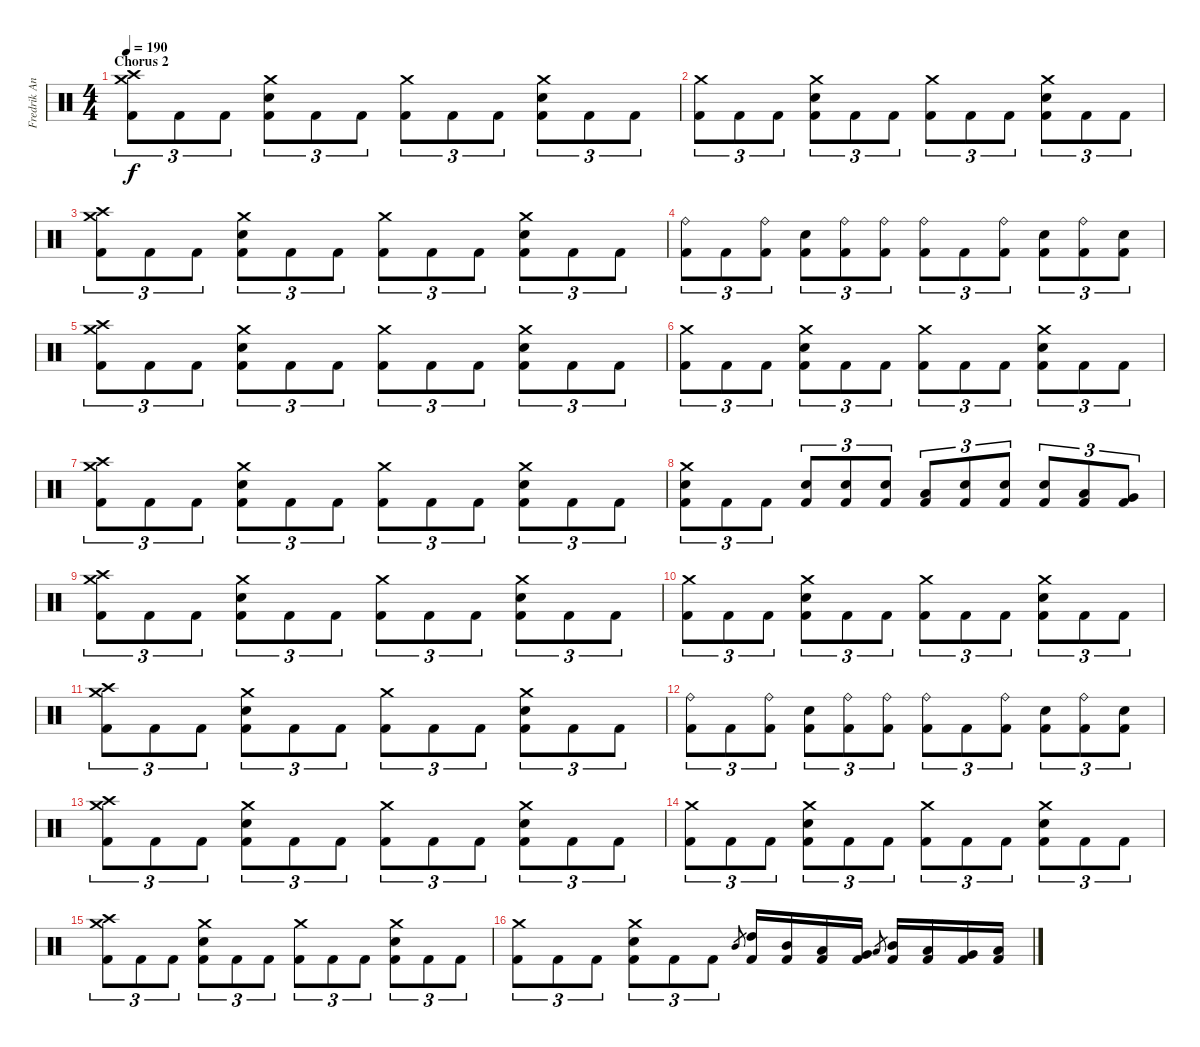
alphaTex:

\track ("Fredrik Andersson" "Fredrik An") {instrument percussion}
\staff {score}
\articulation defaults
\ts (4 4)
\section ("" "Chorus 2")
\tempo 190
\clef neutral
\ks c
("Crash medium (hit)" "Crash high (hit)" "Kick (hit) 2").8{tu (3 2) dy f} "Kick (hit) 2".8{tu (3 2)} "Kick (hit) 2".8{tu (3 2)} ("Crash medium (hit)" "Electric Snare (hit)" "Kick (hit) 2").8{tu (3 2)} "Kick (hit) 2".8{tu (3 2)} "Kick (hit) 2".8{tu (3 2)} ("Crash medium (hit)" "Kick (hit) 2").8{tu (3 2)} "Kick (hit) 2".8{tu (3 2)} "Kick (hit) 2".8{tu (3 2)} ("Crash medium (hit)" "Electric Snare (hit)" "Kick (hit) 2").8{tu (3 2)} "Kick (hit) 2".8{tu (3 2)} "Kick (hit) 2".8{tu (3 2)} |
("Crash medium (hit)" "Kick (hit) 2").8{tu (3 2)} "Kick (hit) 2".8{tu (3 2)} "Kick (hit) 2".8{tu (3 2)} ("Crash medium (hit)" "Electric Snare (hit)" "Kick (hit) 2").8{tu (3 2)} "Kick (hit) 2".8{tu (3 2)} "Kick (hit) 2".8{tu (3 2)} ("Crash medium (hit)" "Kick (hit) 2").8{tu (3 2)} "Kick (hit) 2".8{tu (3 2)} "Kick (hit) 2".8{tu (3 2)} ("Crash medium (hit)" "Electric Snare (hit)" "Kick (hit) 2").8{tu (3 2)} "Kick (hit) 2".8{tu (3 2)} "Kick (hit) 2".8{tu (3 2)} |
("Crash medium (hit)" "Crash high (hit)" "Kick (hit) 2").8{tu (3 2)} "Kick (hit) 2".8{tu (3 2)} "Kick (hit) 2".8{tu (3 2)} ("Crash medium (hit)" "Electric Snare (hit)" "Kick (hit) 2").8{tu (3 2)} "Kick (hit) 2".8{tu (3 2)} "Kick (hit) 2".8{tu (3 2)} ("Crash medium (hit)" "Kick (hit) 2").8{tu (3 2)} "Kick (hit) 2".8{tu (3 2)} "Kick (hit) 2".8{tu (3 2)} ("Crash medium (hit)" "Electric Snare (hit)" "Kick (hit) 2").8{tu (3 2)} "Kick (hit) 2".8{tu (3 2)} "Kick (hit) 2".8{tu (3 2)} |
("Ride (bell)" "Kick (hit) 2").8{tu (3 2)} "Kick (hit) 2".8{tu (3 2)} ("Ride (bell)" "Kick (hit) 2").8{tu (3 2)} ("Electric Snare (hit)" "Kick (hit) 2").8{tu (3 2)} ("Ride (bell)" "Kick (hit) 2").8{tu (3 2)} ("Ride (bell)" "Kick (hit) 2").8{tu (3 2)} ("Ride (bell)" "Kick (hit) 2").8{tu (3 2)} "Kick (hit) 2".8{tu (3 2)} ("Ride (bell)" "Kick (hit) 2").8{tu (3 2)} ("Electric Snare (hit)" "Kick (hit) 2").8{tu (3 2)} ("Ride (bell)" "Kick (hit) 2").8{tu (3 2)} ("Electric Snare (hit)" "Kick (hit) 2").8{tu (3 2)} |
("Crash medium (hit)" "Crash high (hit)" "Kick (hit) 2").8{tu (3 2)} "Kick (hit) 2".8{tu (3 2)} "Kick (hit) 2".8{tu (3 2)} ("Crash medium (hit)" "Electric Snare (hit)" "Kick (hit) 2").8{tu (3 2)} "Kick (hit) 2".8{tu (3 2)} "Kick (hit) 2".8{tu (3 2)} ("Crash medium (hit)" "Kick (hit) 2").8{tu (3 2)} "Kick (hit) 2".8{tu (3 2)} "Kick (hit) 2".8{tu (3 2)} ("Crash medium (hit)" "Electric Snare (hit)" "Kick (hit) 2").8{tu (3 2)} "Kick (hit) 2".8{tu (3 2)} "Kick (hit) 2".8{tu (3 2)} |
("Crash medium (hit)" "Kick (hit) 2").8{tu (3 2)} "Kick (hit) 2".8{tu (3 2)} "Kick (hit) 2".8{tu (3 2)} ("Crash medium (hit)" "Electric Snare (hit)" "Kick (hit) 2").8{tu (3 2)} "Kick (hit) 2".8{tu (3 2)} "Kick (hit) 2".8{tu (3 2)} ("Crash medium (hit)" "Kick (hit) 2").8{tu (3 2)} "Kick (hit) 2".8{tu (3 2)} "Kick (hit) 2".8{tu (3 2)} ("Crash medium (hit)" "Electric Snare (hit)" "Kick (hit) 2").8{tu (3 2)} "Kick (hit) 2".8{tu (3 2)} "Kick (hit) 2".8{tu (3 2)} |
("Crash medium (hit)" "Crash high (hit)" "Kick (hit) 2").8{tu (3 2)} "Kick (hit) 2".8{tu (3 2)} "Kick (hit) 2".8{tu (3 2)} ("Crash medium (hit)" "Electric Snare (hit)" "Kick (hit) 2").8{tu (3 2)} "Kick (hit) 2".8{tu (3 2)} "Kick (hit) 2".8{tu (3 2)} ("Crash medium (hit)" "Kick (hit) 2").8{tu (3 2)} "Kick (hit) 2".8{tu (3 2)} "Kick (hit) 2".8{tu (3 2)} ("Crash medium (hit)" "Electric Snare (hit)" "Kick (hit) 2").8{tu (3 2)} "Kick (hit) 2".8{tu (3 2)} "Kick (hit) 2".8{tu (3 2)} |
("Crash medium (hit)" "Electric Snare (hit)" "Kick (hit) 2").8{tu (3 2)} "Kick (hit) 2".8{tu (3 2)} "Kick (hit) 2".8{tu (3 2)} ("Electric Snare (hit)" "Kick (hit) 2").8{tu (3 2)} ("Electric Snare (hit)" "Kick (hit) 2").8{tu (3 2)} ("Electric Snare (hit)" "Kick (hit) 2").8{tu (3 2)} ("Low Tom (hit)" "Kick (hit) 2").8{tu (3 2)} ("Electric Snare (hit)" "Kick (hit) 2").8{tu (3 2)} ("Electric Snare (hit)" "Kick (hit) 2").8{tu (3 2)} ("Electric Snare (hit)" "Kick (hit) 2").8{tu (3 2)} ("Low Tom (hit)" "Kick (hit) 2").8{tu (3 2)} ("Very Low Tom (hit)" "Kick (hit) 2").8{tu (3 2)} |
("Crash medium (hit)" "Crash high (hit)" "Kick (hit) 2").8{tu (3 2)} "Kick (hit) 2".8{tu (3 2)} "Kick (hit) 2".8{tu (3 2)} ("Crash medium (hit)" "Electric Snare (hit)" "Kick (hit) 2").8{tu (3 2)} "Kick (hit) 2".8{tu (3 2)} "Kick (hit) 2".8{tu (3 2)} ("Crash medium (hit)" "Kick (hit) 2").8{tu (3 2)} "Kick (hit) 2".8{tu (3 2)} "Kick (hit) 2".8{tu (3 2)} ("Crash medium (hit)" "Electric Snare (hit)" "Kick (hit) 2").8{tu (3 2)} "Kick (hit) 2".8{tu (3 2)} "Kick (hit) 2".8{tu (3 2)} |
("Crash medium (hit)" "Kick (hit) 2").8{tu (3 2)} "Kick (hit) 2".8{tu (3 2)} "Kick (hit) 2".8{tu (3 2)} ("Crash medium (hit)" "Electric Snare (hit)" "Kick (hit) 2").8{tu (3 2)} "Kick (hit) 2".8{tu (3 2)} "Kick (hit) 2".8{tu (3 2)} ("Crash medium (hit)" "Kick (hit) 2").8{tu (3 2)} "Kick (hit) 2".8{tu (3 2)} "Kick (hit) 2".8{tu (3 2)} ("Crash medium (hit)" "Electric Snare (hit)" "Kick (hit) 2").8{tu (3 2)} "Kick (hit) 2".8{tu (3 2)} "Kick (hit) 2".8{tu (3 2)} |
("Crash medium (hit)" "Crash high (hit)" "Kick (hit) 2").8{tu (3 2)} "Kick (hit) 2".8{tu (3 2)} "Kick (hit) 2".8{tu (3 2)} ("Crash medium (hit)" "Electric Snare (hit)" "Kick (hit) 2").8{tu (3 2)} "Kick (hit) 2".8{tu (3 2)} "Kick (hit) 2".8{tu (3 2)} ("Crash medium (hit)" "Kick (hit) 2").8{tu (3 2)} "Kick (hit) 2".8{tu (3 2)} "Kick (hit) 2".8{tu (3 2)} ("Crash medium (hit)" "Electric Snare (hit)" "Kick (hit) 2").8{tu (3 2)} "Kick (hit) 2".8{tu (3 2)} "Kick (hit) 2".8{tu (3 2)} |
("Ride (bell)" "Kick (hit) 2").8{tu (3 2)} "Kick (hit) 2".8{tu (3 2)} ("Ride (bell)" "Kick (hit) 2").8{tu (3 2)} ("Electric Snare (hit)" "Kick (hit) 2").8{tu (3 2)} ("Ride (bell)" "Kick (hit) 2").8{tu (3 2)} ("Ride (bell)" "Kick (hit) 2").8{tu (3 2)} ("Ride (bell)" "Kick (hit) 2").8{tu (3 2)} "Kick (hit) 2".8{tu (3 2)} ("Ride (bell)" "Kick (hit) 2").8{tu (3 2)} ("Electric Snare (hit)" "Kick (hit) 2").8{tu (3 2)} ("Ride (bell)" "Kick (hit) 2").8{tu (3 2)} ("Electric Snare (hit)" "Kick (hit) 2").8{tu (3 2)} |
("Crash medium (hit)" "Crash high (hit)" "Kick (hit) 2").8{tu (3 2)} "Kick (hit) 2".8{tu (3 2)} "Kick (hit) 2".8{tu (3 2)} ("Crash medium (hit)" "Electric Snare (hit)" "Kick (hit) 2").8{tu (3 2)} "Kick (hit) 2".8{tu (3 2)} "Kick (hit) 2".8{tu (3 2)} ("Crash medium (hit)" "Kick (hit) 2").8{tu (3 2)} "Kick (hit) 2".8{tu (3 2)} "Kick (hit) 2".8{tu (3 2)} ("Crash medium (hit)" "Electric Snare (hit)" "Kick (hit) 2").8{tu (3 2)} "Kick (hit) 2".8{tu (3 2)} "Kick (hit) 2".8{tu (3 2)} |
("Crash medium (hit)" "Kick (hit) 2").8{tu (3 2)} "Kick (hit) 2".8{tu (3 2)} "Kick (hit) 2".8{tu (3 2)} ("Crash medium (hit)" "Electric Snare (hit)" "Kick (hit) 2").8{tu (3 2)} "Kick (hit) 2".8{tu (3 2)} "Kick (hit) 2".8{tu (3 2)} ("Crash medium (hit)" "Kick (hit) 2").8{tu (3 2)} "Kick (hit) 2".8{tu (3 2)} "Kick (hit) 2".8{tu (3 2)} ("Crash medium (hit)" "Electric Snare (hit)" "Kick (hit) 2").8{tu (3 2)} "Kick (hit) 2".8{tu (3 2)} "Kick (hit) 2".8{tu (3 2)} |
("Crash medium (hit)" "Crash high (hit)" "Kick (hit) 2").8{tu (3 2)} "Kick (hit) 2".8{tu (3 2)} "Kick (hit) 2".8{tu (3 2)} ("Crash medium (hit)" "Electric Snare (hit)" "Kick (hit) 2").8{tu (3 2)} "Kick (hit) 2".8{tu (3 2)} "Kick (hit) 2".8{tu (3 2)} ("Crash medium (hit)" "Kick (hit) 2").8{tu (3 2)} "Kick (hit) 2".8{tu (3 2)} "Kick (hit) 2".8{tu (3 2)} ("Crash medium (hit)" "Electric Snare (hit)" "Kick (hit) 2").8{tu (3 2)} "Kick (hit) 2".8{tu (3 2)} "Kick (hit) 2".8{tu (3 2)} |
("Crash medium (hit)" "Kick (hit) 2").8{tu (3 2)} "Kick (hit) 2".8{tu (3 2)} "Kick (hit) 2".8{tu (3 2)} ("Crash medium (hit)" "Electric Snare (hit)" "Kick (hit) 2").8{tu (3 2)} "Kick (hit) 2".8{tu (3 2)} "Kick (hit) 2".8{tu (3 2)} "Mid Tom (hit)".8{gr} ("High Tom (hit)" "Kick (hit) 2").16 ("Mid Tom (hit)" "Kick (hit) 2").16 ("Low Tom (hit)" "Kick (hit) 2").16 ("Very Low Tom (hit)" "Kick (hit) 2").16 "Low Tom (hit)".8{gr} ("Mid Tom (hit)" "Kick (hit) 2").16 ("Low Tom (hit)" "Kick (hit) 2").16 ("Very Low Tom (hit)" "Kick (hit) 2").16 ("Low Floor Tom (hit)" "Kick (hit) 2").16
